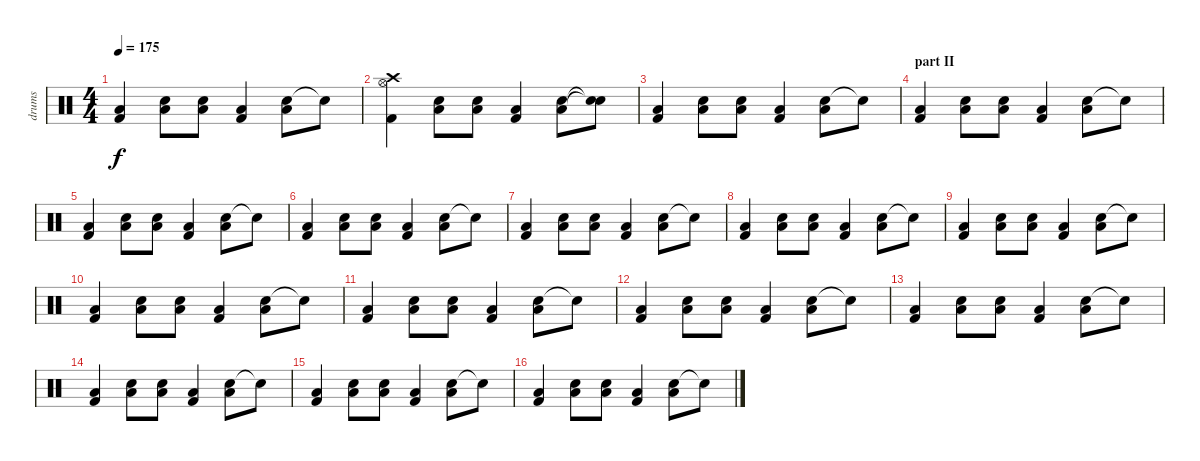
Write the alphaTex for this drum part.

\track ("drums" "drums") {instrument percussion}
\staff {score}
\articulation defaults
\ts (4 4)
\tempo 175
\clef neutral
\ks c
("Kick (hit) 2" "Low Floor Tom (hit)").4{dy f} ("Snare (hit) 2" "Low Floor Tom (hit)").8 ("Snare (hit) 2" "Low Floor Tom (hit)").8 ("Kick (hit) 2" "Low Floor Tom (hit)").4 ("Snare (hit) 2" "Low Floor Tom (hit)").8 "Snare (hit)"{t}.8 |
("Hi-Hat (open)" "Kick (hit) 2" "Crash high (hit)").4 ("Snare (hit) 2" "Low Floor Tom (hit)").8 ("Snare (hit) 2" "Low Floor Tom (hit)").8 ("Kick (hit) 2" "Low Floor Tom (hit)").4 ("Snare (hit) 2" "Low Floor Tom (hit)").8 ("Snare (hit)"{t} "Snare (hit)"{t}).8 |
("Kick (hit) 2" "Low Floor Tom (hit)").4 ("Snare (hit) 2" "Low Floor Tom (hit)").8 ("Snare (hit) 2" "Low Floor Tom (hit)").8 ("Kick (hit) 2" "Low Floor Tom (hit)").4 ("Snare (hit) 2" "Low Floor Tom (hit)").8 "Snare (hit)"{t}.8 |
\section ("" "part II")
("Kick (hit) 2" "Low Floor Tom (hit)").4 ("Snare (hit) 2" "Low Floor Tom (hit)").8 ("Snare (hit) 2" "Low Floor Tom (hit)").8 ("Kick (hit) 2" "Low Floor Tom (hit)").4 ("Snare (hit) 2" "Low Floor Tom (hit)").8 "Snare (hit)"{t}.8 |
("Kick (hit) 2" "Low Floor Tom (hit)").4 ("Snare (hit) 2" "Low Floor Tom (hit)").8 ("Snare (hit) 2" "Low Floor Tom (hit)").8 ("Kick (hit) 2" "Low Floor Tom (hit)").4 ("Snare (hit) 2" "Low Floor Tom (hit)").8 "Snare (hit)"{t}.8 |
("Kick (hit) 2" "Low Floor Tom (hit)").4 ("Snare (hit) 2" "Low Floor Tom (hit)").8 ("Snare (hit) 2" "Low Floor Tom (hit)").8 ("Kick (hit) 2" "Low Floor Tom (hit)").4 ("Snare (hit) 2" "Low Floor Tom (hit)").8 "Snare (hit)"{t}.8 |
("Kick (hit) 2" "Low Floor Tom (hit)").4 ("Snare (hit) 2" "Low Floor Tom (hit)").8 ("Snare (hit) 2" "Low Floor Tom (hit)").8 ("Kick (hit) 2" "Low Floor Tom (hit)").4 ("Snare (hit) 2" "Low Floor Tom (hit)").8 "Snare (hit)"{t}.8 |
("Kick (hit) 2" "Low Floor Tom (hit)").4 ("Snare (hit) 2" "Low Floor Tom (hit)").8 ("Snare (hit) 2" "Low Floor Tom (hit)").8 ("Kick (hit) 2" "Low Floor Tom (hit)").4 ("Snare (hit) 2" "Low Floor Tom (hit)").8 "Snare (hit)"{t}.8 |
("Kick (hit) 2" "Low Floor Tom (hit)").4 ("Snare (hit) 2" "Low Floor Tom (hit)").8 ("Snare (hit) 2" "Low Floor Tom (hit)").8 ("Kick (hit) 2" "Low Floor Tom (hit)").4 ("Snare (hit) 2" "Low Floor Tom (hit)").8 "Snare (hit)"{t}.8 |
("Kick (hit) 2" "Low Floor Tom (hit)").4 ("Snare (hit) 2" "Low Floor Tom (hit)").8 ("Snare (hit) 2" "Low Floor Tom (hit)").8 ("Kick (hit) 2" "Low Floor Tom (hit)").4 ("Snare (hit) 2" "Low Floor Tom (hit)").8 "Snare (hit)"{t}.8 |
("Kick (hit) 2" "Low Floor Tom (hit)").4 ("Snare (hit) 2" "Low Floor Tom (hit)").8 ("Snare (hit) 2" "Low Floor Tom (hit)").8 ("Kick (hit) 2" "Low Floor Tom (hit)").4 ("Snare (hit) 2" "Low Floor Tom (hit)").8 "Snare (hit)"{t}.8 |
("Kick (hit) 2" "Low Floor Tom (hit)").4 ("Snare (hit) 2" "Low Floor Tom (hit)").8 ("Snare (hit) 2" "Low Floor Tom (hit)").8 ("Kick (hit) 2" "Low Floor Tom (hit)").4 ("Snare (hit) 2" "Low Floor Tom (hit)").8 "Snare (hit)"{t}.8 |
("Kick (hit) 2" "Low Floor Tom (hit)").4 ("Snare (hit) 2" "Low Floor Tom (hit)").8 ("Snare (hit) 2" "Low Floor Tom (hit)").8 ("Kick (hit) 2" "Low Floor Tom (hit)").4 ("Snare (hit) 2" "Low Floor Tom (hit)").8 "Snare (hit)"{t}.8 |
("Kick (hit) 2" "Low Floor Tom (hit)").4 ("Snare (hit) 2" "Low Floor Tom (hit)").8 ("Snare (hit) 2" "Low Floor Tom (hit)").8 ("Kick (hit) 2" "Low Floor Tom (hit)").4 ("Snare (hit) 2" "Low Floor Tom (hit)").8 "Snare (hit)"{t}.8 |
("Kick (hit) 2" "Low Floor Tom (hit)").4 ("Snare (hit) 2" "Low Floor Tom (hit)").8 ("Snare (hit) 2" "Low Floor Tom (hit)").8 ("Kick (hit) 2" "Low Floor Tom (hit)").4 ("Snare (hit) 2" "Low Floor Tom (hit)").8 "Snare (hit)"{t}.8 |
("Kick (hit) 2" "Low Floor Tom (hit)").4 ("Snare (hit) 2" "Low Floor Tom (hit)").8 ("Snare (hit) 2" "Low Floor Tom (hit)").8 ("Kick (hit) 2" "Low Floor Tom (hit)").4 ("Snare (hit) 2" "Low Floor Tom (hit)").8 "Snare (hit)"{t}.8
